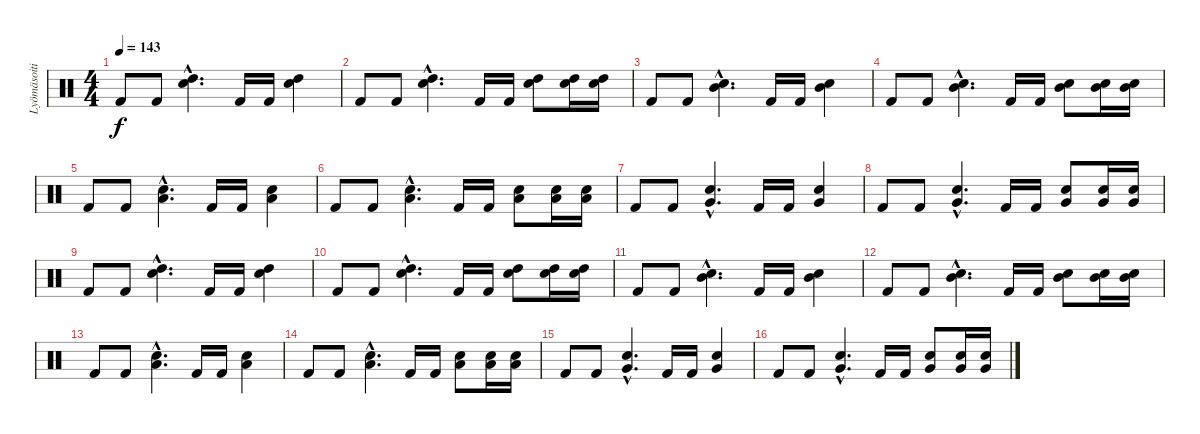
\track ("Lyömäsoitin" "Lyömäsoiti") {instrument percussion}
\staff {score}
\articulation defaults
\ts (4 4)
\tempo 143
\clef neutral
\ks c "Kick (hit) 2".8{dy f} "Kick (hit) 2".8
("Electric Snare (hit)"{hac} "High Tom (hit)"{hac}).4{d} "Kick (hit) 2".16 "Kick (hit) 2".16 ("Electric Snare (hit)" "High Tom (hit)").4 |
"Kick (hit) 2".8 "Kick (hit) 2".8 ("Electric Snare (hit)"{hac} "High Tom (hit)"{hac}).4{d} "Kick (hit) 2".16 "Kick (hit) 2".16 ("Electric Snare (hit)" "High Tom (hit)").8 ("Electric Snare (hit)" "High Tom (hit)").16 ("Electric Snare (hit)" "High Tom (hit)").16 |
"Kick (hit) 2".8 "Kick (hit) 2".8 ("Electric Snare (hit)"{hac} "Mid Tom (hit)"{hac}).4{d} "Kick (hit) 2".16 "Kick (hit) 2".16 ("Electric Snare (hit)" "Mid Tom (hit)").4 |
"Kick (hit) 2".8 "Kick (hit) 2".8 ("Electric Snare (hit)"{hac} "Mid Tom (hit)"{hac}).4{d} "Kick (hit) 2".16 "Kick (hit) 2".16 ("Electric Snare (hit)" "Mid Tom (hit)").8 ("Electric Snare (hit)" "Mid Tom (hit)").16 ("Electric Snare (hit)" "Mid Tom (hit)").16 |
"Kick (hit) 2".8 "Kick (hit) 2".8 ("Electric Snare (hit)"{hac} "Low Tom (hit)"{hac}).4{d} "Kick (hit) 2".16 "Kick (hit) 2".16 ("Electric Snare (hit)" "Low Tom (hit)").4 |
"Kick (hit) 2".8 "Kick (hit) 2".8 ("Electric Snare (hit)"{hac} "Low Tom (hit)"{hac}).4{d} "Kick (hit) 2".16 "Kick (hit) 2".16 ("Electric Snare (hit)" "Low Tom (hit)").8 ("Electric Snare (hit)" "Low Tom (hit)").16 ("Electric Snare (hit)" "Low Tom (hit)").16 |
"Kick (hit) 2".8 "Kick (hit) 2".8 ("Electric Snare (hit)"{hac} "Very Low Tom (hit)"{hac}).4{d} "Kick (hit) 2".16 "Kick (hit) 2".16 ("Electric Snare (hit)" "Very Low Tom (hit)").4 |
"Kick (hit) 2".8 "Kick (hit) 2".8 ("Electric Snare (hit)"{hac} "Very Low Tom (hit)"{hac}).4{d} "Kick (hit) 2".16 "Kick (hit) 2".16 ("Electric Snare (hit)" "Very Low Tom (hit)").8 ("Electric Snare (hit)" "Very Low Tom (hit)").16 ("Electric Snare (hit)" "Very Low Tom (hit)").16 |
"Kick (hit) 2".8 "Kick (hit) 2".8 ("Electric Snare (hit)"{hac} "High Tom (hit)"{hac}).4{d} "Kick (hit) 2".16 "Kick (hit) 2".16 ("Electric Snare (hit)" "High Tom (hit)").4 |
"Kick (hit) 2".8 "Kick (hit) 2".8 ("Electric Snare (hit)"{hac} "High Tom (hit)"{hac}).4{d} "Kick (hit) 2".16 "Kick (hit) 2".16 ("Electric Snare (hit)" "High Tom (hit)").8 ("Electric Snare (hit)" "High Tom (hit)").16 ("Electric Snare (hit)" "High Tom (hit)").16 |
"Kick (hit) 2".8 "Kick (hit) 2".8 ("Electric Snare (hit)"{hac} "Mid Tom (hit)"{hac}).4{d} "Kick (hit) 2".16 "Kick (hit) 2".16 ("Electric Snare (hit)" "Mid Tom (hit)").4 |
"Kick (hit) 2".8 "Kick (hit) 2".8 ("Electric Snare (hit)"{hac} "Mid Tom (hit)"{hac}).4{d} "Kick (hit) 2".16 "Kick (hit) 2".16 ("Electric Snare (hit)" "Mid Tom (hit)").8 ("Electric Snare (hit)" "Mid Tom (hit)").16 ("Electric Snare (hit)" "Mid Tom (hit)").16 |
"Kick (hit) 2".8 "Kick (hit) 2".8 ("Electric Snare (hit)"{hac} "Low Tom (hit)"{hac}).4{d} "Kick (hit) 2".16 "Kick (hit) 2".16 ("Electric Snare (hit)" "Low Tom (hit)").4 |
"Kick (hit) 2".8 "Kick (hit) 2".8 ("Electric Snare (hit)"{hac} "Low Tom (hit)"{hac}).4{d} "Kick (hit) 2".16 "Kick (hit) 2".16 ("Electric Snare (hit)" "Low Tom (hit)").8 ("Electric Snare (hit)" "Low Tom (hit)").16 ("Electric Snare (hit)" "Low Tom (hit)").16 |
"Kick (hit) 2".8 "Kick (hit) 2".8 ("Electric Snare (hit)"{hac} "Very Low Tom (hit)"{hac}).4{d} "Kick (hit) 2".16 "Kick (hit) 2".16 ("Electric Snare (hit)" "Very Low Tom (hit)").4 |
"Kick (hit) 2".8 "Kick (hit) 2".8 ("Electric Snare (hit)"{hac} "Very Low Tom (hit)"{hac}).4{d} "Kick (hit) 2".16 "Kick (hit) 2".16 ("Electric Snare (hit)" "Very Low Tom (hit)").8 ("Electric Snare (hit)" "Very Low Tom (hit)").16 ("Electric Snare (hit)" "Very Low Tom (hit)").16
